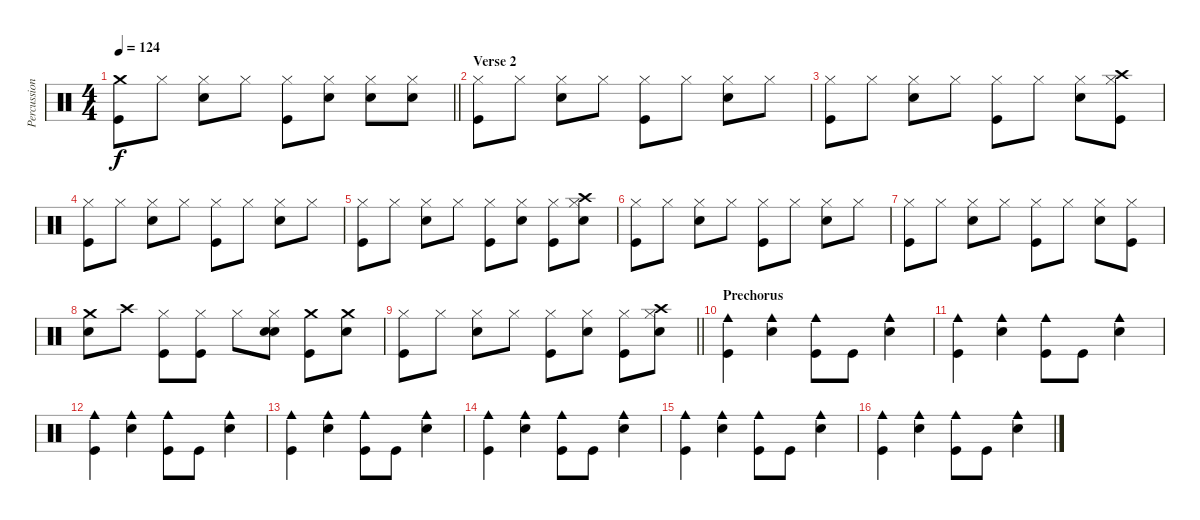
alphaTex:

\track ("Percussion" "Percussion") {instrument percussion}
\staff {score}
\articulation defaults
\ts (4 4)
\tempo 124
\clef neutral
\barLineRight lightlight
\ks c
("Crash medium (hit)" "Kick (hit)").8{dy f} "Hi-Hat (closed)".8 ("Hi-Hat (closed)" "Electric Snare (hit)").8 "Hi-Hat (closed)".8 ("Hi-Hat (closed)" "Kick (hit)").8 ("Hi-Hat (closed)" "Electric Snare (hit)").8 ("Hi-Hat (closed)" "Electric Snare (hit)").8 ("Hi-Hat (closed)" "Electric Snare (hit)").8 |
\section ("" "Verse 2")
("Hi-Hat (closed)" "Kick (hit)").8 "Hi-Hat (closed)".8 ("Hi-Hat (closed)" "Electric Snare (hit)").8 "Hi-Hat (closed)".8 ("Hi-Hat (closed)" "Kick (hit)").8 "Hi-Hat (closed)".8 ("Hi-Hat (closed)" "Electric Snare (hit)").8 "Hi-Hat (closed)".8 |
("Hi-Hat (closed)" "Kick (hit)").8 "Hi-Hat (closed)".8 ("Hi-Hat (closed)" "Electric Snare (hit)").8 "Hi-Hat (closed)".8 ("Hi-Hat (closed)" "Kick (hit)").8 "Hi-Hat (closed)".8 ("Hi-Hat (closed)" "Electric Snare (hit)").8 ("Hi-Hat (closed)" "Crash high (hit)" "Kick (hit)").8 |
("Hi-Hat (closed)" "Kick (hit)").8 "Hi-Hat (closed)".8 ("Hi-Hat (closed)" "Electric Snare (hit)").8 "Hi-Hat (closed)".8 ("Hi-Hat (closed)" "Kick (hit)").8 "Hi-Hat (closed)".8 ("Hi-Hat (closed)" "Electric Snare (hit)").8 "Hi-Hat (closed)".8 |
("Hi-Hat (closed)" "Kick (hit)").8 "Hi-Hat (closed)".8 ("Hi-Hat (closed)" "Electric Snare (hit)").8 "Hi-Hat (closed)".8 ("Hi-Hat (closed)" "Kick (hit)").8 ("Hi-Hat (closed)" "Electric Snare (hit)").8 ("Hi-Hat (closed)" "Kick (hit)").8 ("Hi-Hat (closed)" "Crash high (hit)" "Electric Snare (hit)").8 |
("Hi-Hat (closed)" "Kick (hit)").8 "Hi-Hat (closed)".8 ("Hi-Hat (closed)" "Electric Snare (hit)").8 "Hi-Hat (closed)".8 ("Hi-Hat (closed)" "Kick (hit)").8 "Hi-Hat (closed)".8 ("Hi-Hat (closed)" "Electric Snare (hit)").8 "Hi-Hat (closed)".8 |
("Hi-Hat (closed)" "Kick (hit)").8 "Hi-Hat (closed)".8 ("Hi-Hat (closed)" "Electric Snare (hit)").8 "Hi-Hat (closed)".8 ("Hi-Hat (closed)" "Kick (hit)").8 "Hi-Hat (closed)".8 ("Hi-Hat (closed)" "Electric Snare (hit)").8 ("Hi-Hat (closed)" "Kick (hit)").8 |
("Crash medium (hit)" "Electric Snare (hit)").8 "Crash high (hit)".8 ("Hi-Hat (closed)" "Kick (hit)").8 ("Hi-Hat (closed)" "Kick (hit)").8 "Hi-Hat (closed)".8 ("Hi-Hat (closed)" "Electric Snare (hit)" "Electric Snare (hit)").8 ("Crash medium (hit)" "Kick (hit)").8 ("Crash medium (hit)" "Electric Snare (hit)").8 |
\barLineRight lightlight
("Hi-Hat (closed)" "Kick (hit)").8 "Hi-Hat (closed)".8 ("Hi-Hat (closed)" "Electric Snare (hit)").8 "Hi-Hat (closed)".8 ("Hi-Hat (closed)" "Kick (hit)").8 ("Hi-Hat (closed)" "Electric Snare (hit)").8 ("Hi-Hat (closed)" "Kick (hit)").8 ("Hi-Hat (closed)" "Crash high (hit)" "Electric Snare (hit)").8 |
\section ("" "Prechorus")
("Cowbell medium (hit)" "Kick (hit)").4 ("Cowbell medium (hit)" "Electric Snare (hit)").4 ("Cowbell medium (hit)" "Kick (hit)").8 "Kick (hit)".8 ("Cowbell medium (hit)" "Electric Snare (hit)").4 |
("Cowbell medium (hit)" "Kick (hit)").4 ("Cowbell medium (hit)" "Electric Snare (hit)").4 ("Cowbell medium (hit)" "Kick (hit)").8 "Kick (hit)".8 ("Cowbell medium (hit)" "Electric Snare (hit)").4 |
("Cowbell medium (hit)" "Kick (hit)").4 ("Cowbell medium (hit)" "Electric Snare (hit)").4 ("Cowbell medium (hit)" "Kick (hit)").8 "Kick (hit)".8 ("Cowbell medium (hit)" "Electric Snare (hit)").4 |
("Cowbell medium (hit)" "Kick (hit)").4 ("Cowbell medium (hit)" "Electric Snare (hit)").4 ("Cowbell medium (hit)" "Kick (hit)").8 "Kick (hit)".8 ("Cowbell medium (hit)" "Electric Snare (hit)").4 |
("Cowbell medium (hit)" "Kick (hit)").4 ("Cowbell medium (hit)" "Electric Snare (hit)").4 ("Cowbell medium (hit)" "Kick (hit)").8 "Kick (hit)".8 ("Cowbell medium (hit)" "Electric Snare (hit)").4 |
("Cowbell medium (hit)" "Kick (hit)").4 ("Cowbell medium (hit)" "Electric Snare (hit)").4 ("Cowbell medium (hit)" "Kick (hit)").8 "Kick (hit)".8 ("Cowbell medium (hit)" "Electric Snare (hit)").4 |
("Cowbell medium (hit)" "Kick (hit)").4 ("Cowbell medium (hit)" "Electric Snare (hit)").4 ("Cowbell medium (hit)" "Kick (hit)").8 "Kick (hit)".8 ("Cowbell medium (hit)" "Electric Snare (hit)").4
